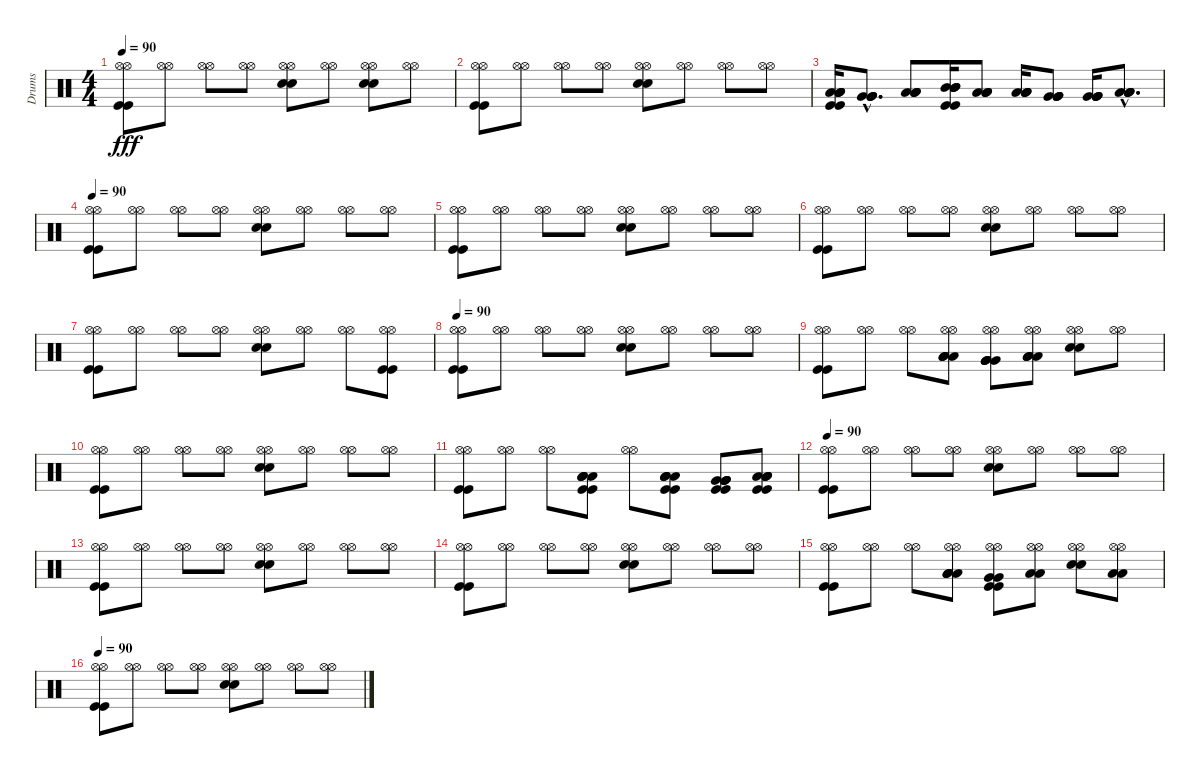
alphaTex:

\track ("Drums" "Drums") {instrument percussion}
\staff {score}
\articulation defaults
\ts (4 4)
\tempo 90
\clef neutral
\ks c
("Kick (hit)" "Hi-Hat (open)" "Hi-Hat (open)" "Kick (hit)").8{dy fff} ("Hi-Hat (open)" "Hi-Hat (open)").8 ("Hi-Hat (open)" "Hi-Hat (open)").8 ("Hi-Hat (open)" "Hi-Hat (open)").8 ("Electric Snare (hit)" "Hi-Hat (open)" "Hi-Hat (open)" "Electric Snare (hit)").8 ("Hi-Hat (open)" "Hi-Hat (open)").8 ("Electric Snare (hit)" "Hi-Hat (open)" "Hi-Hat (open)" "Electric Snare (hit)").8 ("Hi-Hat (open)" "Hi-Hat (open)").8 |
("Kick (hit)" "Hi-Hat (open)" "Hi-Hat (open)" "Kick (hit)").8 ("Hi-Hat (open)" "Hi-Hat (open)").8 ("Hi-Hat (open)" "Hi-Hat (open)").8 ("Hi-Hat (open)" "Hi-Hat (open)").8 ("Electric Snare (hit)" "Hi-Hat (open)" "Hi-Hat (open)" "Electric Snare (hit)").8 ("Hi-Hat (open)" "Hi-Hat (open)").8 ("Hi-Hat (open)" "Hi-Hat (open)").8 ("Hi-Hat (open)" "Hi-Hat (open)").8 |
("Kick (hit)" "Low Tom (hit)" "Low Tom (hit)" "Low Tom (hit)" "Low Tom (hit)" "Kick (hit)").16 ("Very Low Tom (hit)"{hac} "Very Low Tom (hit)"{hac} "Very Low Tom (hit)"{hac} "Very Low Tom (hit)"{hac}).8{d} ("Low Floor Tom (hit)" "Low Floor Tom (hit)" "Low Floor Tom (hit)" "Low Floor Tom (hit)").8 ("Kick (hit)" "Mid Tom (hit)" "Mid Tom (hit)" "Mid Tom (hit)" "Mid Tom (hit)" "Kick (hit)").16 ("Low Tom (hit)" "Low Tom (hit)" "Low Tom (hit)" "Low Tom (hit)").8 ("Low Tom (hit)" "Low Tom (hit)" "Low Tom (hit)" "Low Tom (hit)").16 ("Very Low Tom (hit)" "Very Low Tom (hit)" "Very Low Tom (hit)" "Very Low Tom (hit)").8 ("Very Low Tom (hit)" "Very Low Tom (hit)" "Very Low Tom (hit)" "Very Low Tom (hit)").16 ("Low Floor Tom (hit)"{hac} "Low Floor Tom (hit)"{hac} "Low Floor Tom (hit)"{hac} "Low Floor Tom (hit)"{hac}).8{d} |
\tempo 90
("Kick (hit)" "Hi-Hat (open)" "Hi-Hat (open)" "Kick (hit)").8 ("Hi-Hat (open)" "Hi-Hat (open)").8 ("Hi-Hat (open)" "Hi-Hat (open)").8 ("Hi-Hat (open)" "Hi-Hat (open)").8 ("Electric Snare (hit)" "Hi-Hat (open)" "Hi-Hat (open)" "Electric Snare (hit)").8 ("Hi-Hat (open)" "Hi-Hat (open)").8 ("Hi-Hat (open)" "Hi-Hat (open)").8 ("Hi-Hat (open)" "Hi-Hat (open)").8 |
("Kick (hit)" "Hi-Hat (open)" "Hi-Hat (open)" "Kick (hit)").8 ("Hi-Hat (open)" "Hi-Hat (open)").8 ("Hi-Hat (open)" "Hi-Hat (open)").8 ("Hi-Hat (open)" "Hi-Hat (open)").8 ("Electric Snare (hit)" "Hi-Hat (open)" "Hi-Hat (open)" "Electric Snare (hit)").8 ("Hi-Hat (open)" "Hi-Hat (open)").8 ("Hi-Hat (open)" "Hi-Hat (open)").8 ("Hi-Hat (open)" "Hi-Hat (open)").8 |
("Kick (hit)" "Hi-Hat (open)" "Hi-Hat (open)" "Kick (hit)").8 ("Hi-Hat (open)" "Hi-Hat (open)").8 ("Hi-Hat (open)" "Hi-Hat (open)").8 ("Hi-Hat (open)" "Hi-Hat (open)").8 ("Electric Snare (hit)" "Hi-Hat (open)" "Hi-Hat (open)" "Electric Snare (hit)").8 ("Hi-Hat (open)" "Hi-Hat (open)").8 ("Hi-Hat (open)" "Hi-Hat (open)").8 ("Hi-Hat (open)" "Hi-Hat (open)").8 |
("Kick (hit)" "Hi-Hat (open)" "Hi-Hat (open)" "Kick (hit)").8 ("Hi-Hat (open)" "Hi-Hat (open)").8 ("Hi-Hat (open)" "Hi-Hat (open)").8 ("Hi-Hat (open)" "Hi-Hat (open)").8 ("Electric Snare (hit)" "Hi-Hat (open)" "Hi-Hat (open)" "Electric Snare (hit)").8 ("Hi-Hat (open)" "Hi-Hat (open)").8 ("Hi-Hat (open)" "Hi-Hat (open)").8 ("Kick (hit)" "Hi-Hat (open)" "Hi-Hat (open)" "Kick (hit)").8 |
\tempo 90
("Kick (hit)" "Hi-Hat (open)" "Hi-Hat (open)" "Kick (hit)").8 ("Hi-Hat (open)" "Hi-Hat (open)").8 ("Hi-Hat (open)" "Hi-Hat (open)").8 ("Hi-Hat (open)" "Hi-Hat (open)").8 ("Electric Snare (hit)" "Hi-Hat (open)" "Hi-Hat (open)" "Electric Snare (hit)").8 ("Hi-Hat (open)" "Hi-Hat (open)").8 ("Hi-Hat (open)" "Hi-Hat (open)").8 ("Hi-Hat (open)" "Hi-Hat (open)").8 |
("Kick (hit)" "Hi-Hat (open)" "Hi-Hat (open)" "Kick (hit)").8 ("Hi-Hat (open)" "Hi-Hat (open)").8 ("Hi-Hat (open)" "Hi-Hat (open)").8 ("Low Tom (hit)" "Low Tom (hit)" "Hi-Hat (open)" "Hi-Hat (open)" "Low Tom (hit)" "Low Tom (hit)").8 ("Very Low Tom (hit)" "Very Low Tom (hit)" "Hi-Hat (open)" "Hi-Hat (open)" "Very Low Tom (hit)" "Very Low Tom (hit)").8 ("Low Floor Tom (hit)" "Low Floor Tom (hit)" "Hi-Hat (open)" "Hi-Hat (open)" "Low Floor Tom (hit)" "Low Floor Tom (hit)").8 ("Electric Snare (hit)" "Hi-Hat (open)" "Hi-Hat (open)" "Electric Snare (hit)").8 ("Hi-Hat (open)" "Hi-Hat (open)").8 |
("Kick (hit)" "Hi-Hat (open)" "Hi-Hat (open)" "Kick (hit)").8 ("Hi-Hat (open)" "Hi-Hat (open)").8 ("Hi-Hat (open)" "Hi-Hat (open)").8 ("Hi-Hat (open)" "Hi-Hat (open)").8 ("Electric Snare (hit)" "Hi-Hat (open)" "Hi-Hat (open)" "Electric Snare (hit)").8 ("Hi-Hat (open)" "Hi-Hat (open)").8 ("Hi-Hat (open)" "Hi-Hat (open)").8 ("Hi-Hat (open)" "Hi-Hat (open)").8 |
("Kick (hit)" "Hi-Hat (open)" "Hi-Hat (open)" "Kick (hit)").8 ("Hi-Hat (open)" "Hi-Hat (open)").8 ("Hi-Hat (open)" "Hi-Hat (open)").8 ("Kick (hit)" "Low Tom (hit)" "Low Tom (hit)" "Low Tom (hit)" "Low Tom (hit)" "Kick (hit)").8 ("Hi-Hat (open)" "Hi-Hat (open)").8 ("Kick (hit)" "Low Tom (hit)" "Low Tom (hit)" "Low Tom (hit)" "Low Tom (hit)" "Kick (hit)").8 ("Kick (hit)" "Very Low Tom (hit)" "Very Low Tom (hit)" "Very Low Tom (hit)" "Very Low Tom (hit)" "Kick (hit)").8 ("Kick (hit)" "Low Floor Tom (hit)" "Low Floor Tom (hit)" "Low Floor Tom (hit)" "Low Floor Tom (hit)" "Kick (hit)").8 |
\tempo 90
("Kick (hit)" "Hi-Hat (open)" "Hi-Hat (open)" "Kick (hit)").8{volume 11} ("Hi-Hat (open)" "Hi-Hat (open)").8 ("Hi-Hat (open)" "Hi-Hat (open)").8 ("Hi-Hat (open)" "Hi-Hat (open)").8 ("Electric Snare (hit)" "Hi-Hat (open)" "Hi-Hat (open)" "Electric Snare (hit)").8 ("Hi-Hat (open)" "Hi-Hat (open)").8 ("Hi-Hat (open)" "Hi-Hat (open)").8 ("Hi-Hat (open)" "Hi-Hat (open)").8 |
("Kick (hit)" "Hi-Hat (open)" "Hi-Hat (open)" "Kick (hit)").8{volume 10} ("Hi-Hat (open)" "Hi-Hat (open)").8 ("Hi-Hat (open)" "Hi-Hat (open)").8 ("Hi-Hat (open)" "Hi-Hat (open)").8 ("Electric Snare (hit)" "Hi-Hat (open)" "Hi-Hat (open)" "Electric Snare (hit)").8 ("Hi-Hat (open)" "Hi-Hat (open)").8 ("Hi-Hat (open)" "Hi-Hat (open)").8 ("Hi-Hat (open)" "Hi-Hat (open)").8 |
("Kick (hit)" "Hi-Hat (open)" "Hi-Hat (open)" "Kick (hit)").8{volume 8} ("Hi-Hat (open)" "Hi-Hat (open)").8 ("Hi-Hat (open)" "Hi-Hat (open)").8 ("Hi-Hat (open)" "Hi-Hat (open)").8 ("Electric Snare (hit)" "Hi-Hat (open)" "Hi-Hat (open)" "Electric Snare (hit)").8 ("Hi-Hat (open)" "Hi-Hat (open)").8 ("Hi-Hat (open)" "Hi-Hat (open)").8 ("Hi-Hat (open)" "Hi-Hat (open)").8 |
("Kick (hit)" "Hi-Hat (open)" "Hi-Hat (open)" "Kick (hit)").8{volume 6} ("Hi-Hat (open)" "Hi-Hat (open)").8 ("Hi-Hat (open)" "Hi-Hat (open)").8 ("Low Tom (hit)" "Low Tom (hit)" "Hi-Hat (open)" "Hi-Hat (open)" "Low Tom (hit)" "Low Tom (hit)").8 ("Kick (hit)" "Very Low Tom (hit)" "Hi-Hat (open)" "Hi-Hat (open)" "Very Low Tom (hit)" "Kick (hit)").8 ("Low Floor Tom (hit)" "Hi-Hat (open)" "Hi-Hat (open)" "Low Floor Tom (hit)").8 ("Electric Snare (hit)" "Hi-Hat (open)" "Hi-Hat (open)" "Electric Snare (hit)").8 ("Low Floor Tom (hit)" "Hi-Hat (open)" "Hi-Hat (open)" "Low Floor Tom (hit)").8 |
\tempo 90
("Kick (hit)" "Hi-Hat (open)" "Hi-Hat (open)" "Kick (hit)").8{volume 5} ("Hi-Hat (open)" "Hi-Hat (open)").8 ("Hi-Hat (open)" "Hi-Hat (open)").8 ("Hi-Hat (open)" "Hi-Hat (open)").8 ("Electric Snare (hit)" "Hi-Hat (open)" "Hi-Hat (open)" "Electric Snare (hit)").8 ("Hi-Hat (open)" "Hi-Hat (open)").8 ("Hi-Hat (open)" "Hi-Hat (open)").8 ("Hi-Hat (open)" "Hi-Hat (open)").8
